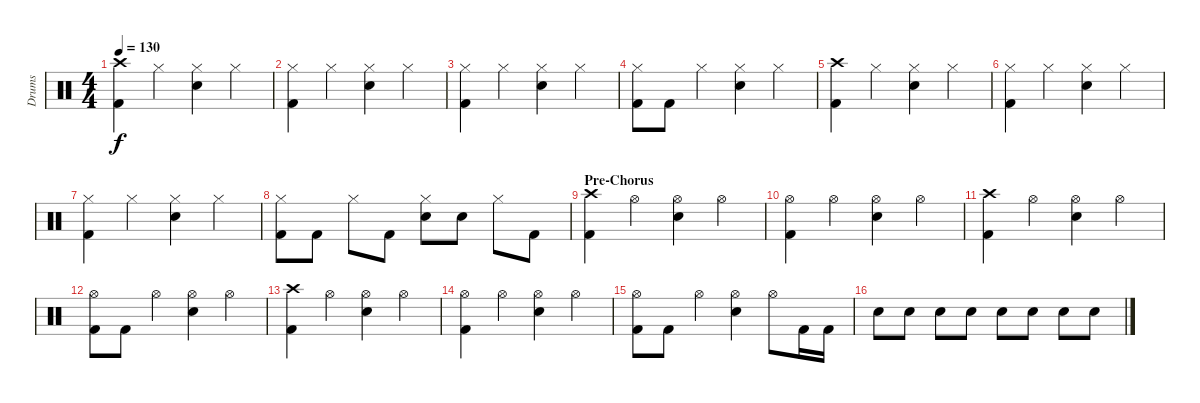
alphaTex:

\track ("Drums" "Drums") {instrument percussion}
\staff {score}
\articulation defaults
\ts (4 4)
\tempo 130
\clef neutral
\ks c
("Crash high (hit)" "Kick (hit) 2").4{dy f} "Hi-Hat (closed)".4 ("Hi-Hat (closed)" "Snare (hit) 2").4 "Hi-Hat (closed)".4 |
("Hi-Hat (closed)" "Kick (hit) 2").4 "Hi-Hat (closed)".4 ("Hi-Hat (closed)" "Snare (hit) 2").4 "Hi-Hat (closed)".4 |
("Hi-Hat (closed)" "Kick (hit) 2").4 "Hi-Hat (closed)".4 ("Hi-Hat (closed)" "Snare (hit) 2").4 "Hi-Hat (closed)".4 |
("Hi-Hat (closed)" "Kick (hit) 2").8 "Kick (hit) 2".8 "Hi-Hat (closed)".4 ("Hi-Hat (closed)" "Snare (hit) 2").4 "Hi-Hat (closed)".4 |
("Crash high (hit)" "Kick (hit) 2").4 "Hi-Hat (closed)".4 ("Hi-Hat (closed)" "Snare (hit) 2").4 "Hi-Hat (closed)".4 |
("Hi-Hat (closed)" "Kick (hit) 2").4 "Hi-Hat (closed)".4 ("Hi-Hat (closed)" "Snare (hit) 2").4 "Hi-Hat (closed)".4 |
("Hi-Hat (closed)" "Kick (hit) 2").4 "Hi-Hat (closed)".4 ("Hi-Hat (closed)" "Snare (hit) 2").4 "Hi-Hat (closed)".4 |
("Hi-Hat (closed)" "Kick (hit) 2").8 "Kick (hit) 2".8 "Hi-Hat (closed)".8 "Kick (hit) 2".8 ("Hi-Hat (closed)" "Snare (hit) 2").8 "Snare (hit) 2".8 "Hi-Hat (closed)".8 "Kick (hit) 2".8 |
\section ("" "Pre-Chorus")
("Crash high (hit)" "Kick (hit) 2").4 "Hi-Hat (open)".4 ("Hi-Hat (open)" "Snare (hit) 2").4 "Hi-Hat (open)".4 |
("Hi-Hat (open)" "Kick (hit) 2").4 "Hi-Hat (open)".4 ("Hi-Hat (open)" "Snare (hit) 2").4 "Hi-Hat (open)".4 |
("Crash high (hit)" "Kick (hit) 2").4 "Hi-Hat (open)".4 ("Hi-Hat (open)" "Snare (hit) 2").4 "Hi-Hat (open)".4 |
("Hi-Hat (open)" "Kick (hit) 2").8 "Kick (hit) 2".8 "Hi-Hat (open)".4 ("Hi-Hat (open)" "Snare (hit) 2").4 "Hi-Hat (open)".4 |
("Crash high (hit)" "Kick (hit) 2").4 "Hi-Hat (open)".4 ("Hi-Hat (open)" "Snare (hit) 2").4 "Hi-Hat (open)".4 |
("Hi-Hat (open)" "Kick (hit) 2").4 "Hi-Hat (open)".4 ("Hi-Hat (open)" "Snare (hit) 2").4 "Hi-Hat (open)".4 |
("Hi-Hat (open)" "Kick (hit) 2").8 "Kick (hit) 2".8 "Hi-Hat (open)".4 ("Hi-Hat (open)" "Snare (hit) 2").4 "Hi-Hat (open)".8 "Kick (hit) 2".16 "Kick (hit) 2".16 |
"Snare (hit) 2".8 "Snare (hit) 2".8 "Snare (hit) 2".8 "Snare (hit) 2".8 "Snare (hit) 2".8 "Snare (hit) 2".8 "Snare (hit) 2".8 "Snare (hit) 2".8
